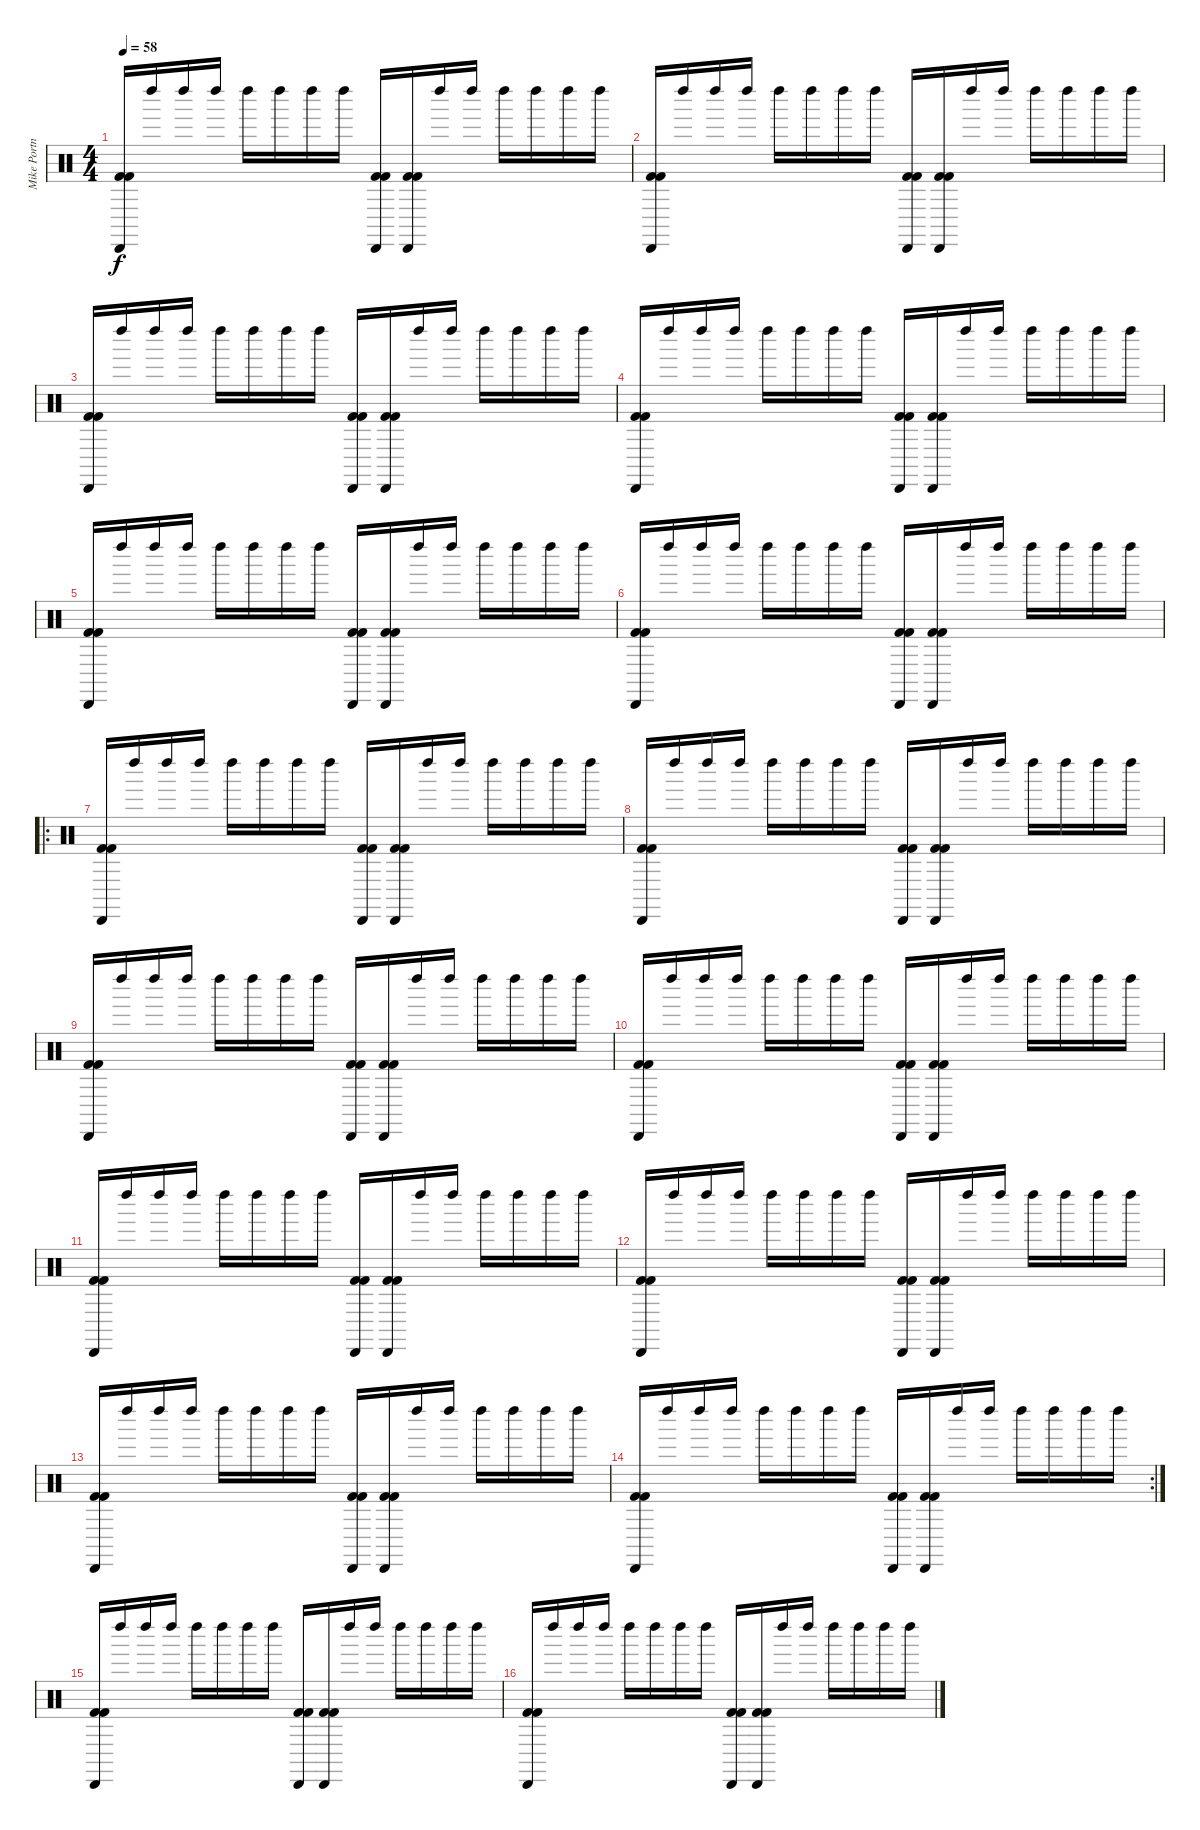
\track ("Mike Portnoy - Drum" "Mike Portn") {instrument percussion}
\staff {score}
\articulation defaults
\ts (4 4)
\tempo 58
\clef neutral
\ks c
("Cabasa (hit)" "Kick (hit) 2" "Kick (hit) 2").16{dy f} "Left Maraca (hit)".16 "Left Maraca (hit)".16 "Left Maraca (hit)".16 "Left Maraca (hit)".16 "Left Maraca (hit)".16 "Left Maraca (hit)".16 "Left Maraca (hit)".16 ("Cabasa (hit)" "Kick (hit) 2" "Kick (hit) 2").16 ("Cabasa (hit)" "Kick (hit) 2" "Kick (hit) 2").16 "Left Maraca (hit)".16 "Left Maraca (hit)".16 "Left Maraca (hit)".16 "Left Maraca (hit)".16 "Left Maraca (hit)".16 "Left Maraca (hit)".16 |
("Cabasa (hit)" "Kick (hit) 2" "Kick (hit) 2").16 "Left Maraca (hit)".16 "Left Maraca (hit)".16 "Left Maraca (hit)".16 "Left Maraca (hit)".16 "Left Maraca (hit)".16 "Left Maraca (hit)".16 "Left Maraca (hit)".16 ("Cabasa (hit)" "Kick (hit) 2" "Kick (hit) 2").16 ("Cabasa (hit)" "Kick (hit) 2" "Kick (hit) 2").16 "Left Maraca (hit)".16 "Left Maraca (hit)".16 "Left Maraca (hit)".16 "Left Maraca (hit)".16 "Left Maraca (hit)".16 "Left Maraca (hit)".16 |
("Cabasa (hit)" "Kick (hit) 2" "Kick (hit) 2").16 "Left Maraca (hit)".16 "Left Maraca (hit)".16 "Left Maraca (hit)".16 "Left Maraca (hit)".16 "Left Maraca (hit)".16 "Left Maraca (hit)".16 "Left Maraca (hit)".16 ("Cabasa (hit)" "Kick (hit) 2" "Kick (hit) 2").16 ("Cabasa (hit)" "Kick (hit) 2" "Kick (hit) 2").16 "Left Maraca (hit)".16 "Left Maraca (hit)".16 "Left Maraca (hit)".16 "Left Maraca (hit)".16 "Left Maraca (hit)".16 "Left Maraca (hit)".16 |
("Cabasa (hit)" "Kick (hit) 2" "Kick (hit) 2").16 "Left Maraca (hit)".16 "Left Maraca (hit)".16 "Left Maraca (hit)".16 "Left Maraca (hit)".16 "Left Maraca (hit)".16 "Left Maraca (hit)".16 "Left Maraca (hit)".16 ("Cabasa (hit)" "Kick (hit) 2" "Kick (hit) 2").16 ("Cabasa (hit)" "Kick (hit) 2" "Kick (hit) 2").16 "Left Maraca (hit)".16 "Left Maraca (hit)".16 "Left Maraca (hit)".16 "Left Maraca (hit)".16 "Left Maraca (hit)".16 "Left Maraca (hit)".16 |
("Cabasa (hit)" "Kick (hit) 2" "Kick (hit) 2").16 "Left Maraca (hit)".16 "Left Maraca (hit)".16 "Left Maraca (hit)".16 "Left Maraca (hit)".16 "Left Maraca (hit)".16 "Left Maraca (hit)".16 "Left Maraca (hit)".16 ("Cabasa (hit)" "Kick (hit) 2" "Kick (hit) 2").16 ("Cabasa (hit)" "Kick (hit) 2" "Kick (hit) 2").16 "Left Maraca (hit)".16 "Left Maraca (hit)".16 "Left Maraca (hit)".16 "Left Maraca (hit)".16 "Left Maraca (hit)".16 "Left Maraca (hit)".16 |
("Cabasa (hit)" "Kick (hit) 2" "Kick (hit) 2").16 "Left Maraca (hit)".16 "Left Maraca (hit)".16 "Left Maraca (hit)".16 "Left Maraca (hit)".16 "Left Maraca (hit)".16 "Left Maraca (hit)".16 "Left Maraca (hit)".16 ("Cabasa (hit)" "Kick (hit) 2" "Kick (hit) 2").16 ("Cabasa (hit)" "Kick (hit) 2" "Kick (hit) 2").16 "Left Maraca (hit)".16 "Left Maraca (hit)".16 "Left Maraca (hit)".16 "Left Maraca (hit)".16 "Left Maraca (hit)".16 "Left Maraca (hit)".16 |
\ro
("Cabasa (hit)" "Kick (hit) 2" "Kick (hit) 2").16 "Left Maraca (hit)".16 "Left Maraca (hit)".16 "Left Maraca (hit)".16 "Left Maraca (hit)".16 "Left Maraca (hit)".16 "Left Maraca (hit)".16 "Left Maraca (hit)".16 ("Cabasa (hit)" "Kick (hit) 2" "Kick (hit) 2").16 ("Cabasa (hit)" "Kick (hit) 2" "Kick (hit) 2").16 "Left Maraca (hit)".16 "Left Maraca (hit)".16 "Left Maraca (hit)".16 "Left Maraca (hit)".16 "Left Maraca (hit)".16 "Left Maraca (hit)".16 |
("Cabasa (hit)" "Kick (hit) 2" "Kick (hit) 2").16 "Left Maraca (hit)".16 "Left Maraca (hit)".16 "Left Maraca (hit)".16 "Left Maraca (hit)".16 "Left Maraca (hit)".16 "Left Maraca (hit)".16 "Left Maraca (hit)".16 ("Cabasa (hit)" "Kick (hit) 2" "Kick (hit) 2").16 ("Cabasa (hit)" "Kick (hit) 2" "Kick (hit) 2").16 "Left Maraca (hit)".16 "Left Maraca (hit)".16 "Left Maraca (hit)".16 "Left Maraca (hit)".16 "Left Maraca (hit)".16 "Left Maraca (hit)".16 |
("Cabasa (hit)" "Kick (hit) 2" "Kick (hit) 2").16 "Left Maraca (hit)".16 "Left Maraca (hit)".16 "Left Maraca (hit)".16 "Left Maraca (hit)".16 "Left Maraca (hit)".16 "Left Maraca (hit)".16 "Left Maraca (hit)".16 ("Cabasa (hit)" "Kick (hit) 2" "Kick (hit) 2").16 ("Cabasa (hit)" "Kick (hit) 2" "Kick (hit) 2").16 "Left Maraca (hit)".16 "Left Maraca (hit)".16 "Left Maraca (hit)".16 "Left Maraca (hit)".16 "Left Maraca (hit)".16 "Left Maraca (hit)".16 |
("Cabasa (hit)" "Kick (hit) 2" "Kick (hit) 2").16 "Left Maraca (hit)".16 "Left Maraca (hit)".16 "Left Maraca (hit)".16 "Left Maraca (hit)".16 "Left Maraca (hit)".16 "Left Maraca (hit)".16 "Left Maraca (hit)".16 ("Cabasa (hit)" "Kick (hit) 2" "Kick (hit) 2").16 ("Cabasa (hit)" "Kick (hit) 2" "Kick (hit) 2").16 "Left Maraca (hit)".16 "Left Maraca (hit)".16 "Left Maraca (hit)".16 "Left Maraca (hit)".16 "Left Maraca (hit)".16 "Left Maraca (hit)".16 |
("Cabasa (hit)" "Kick (hit) 2" "Kick (hit) 2").16 "Left Maraca (hit)".16 "Left Maraca (hit)".16 "Left Maraca (hit)".16 "Left Maraca (hit)".16 "Left Maraca (hit)".16 "Left Maraca (hit)".16 "Left Maraca (hit)".16 ("Cabasa (hit)" "Kick (hit) 2" "Kick (hit) 2").16 ("Cabasa (hit)" "Kick (hit) 2" "Kick (hit) 2").16 "Left Maraca (hit)".16 "Left Maraca (hit)".16 "Left Maraca (hit)".16 "Left Maraca (hit)".16 "Left Maraca (hit)".16 "Left Maraca (hit)".16 |
("Cabasa (hit)" "Kick (hit) 2" "Kick (hit) 2").16 "Left Maraca (hit)".16 "Left Maraca (hit)".16 "Left Maraca (hit)".16 "Left Maraca (hit)".16 "Left Maraca (hit)".16 "Left Maraca (hit)".16 "Left Maraca (hit)".16 ("Cabasa (hit)" "Kick (hit) 2" "Kick (hit) 2").16 ("Cabasa (hit)" "Kick (hit) 2" "Kick (hit) 2").16 "Left Maraca (hit)".16 "Left Maraca (hit)".16 "Left Maraca (hit)".16 "Left Maraca (hit)".16 "Left Maraca (hit)".16 "Left Maraca (hit)".16 |
("Cabasa (hit)" "Kick (hit) 2" "Kick (hit) 2").16 "Left Maraca (hit)".16 "Left Maraca (hit)".16 "Left Maraca (hit)".16 "Left Maraca (hit)".16 "Left Maraca (hit)".16 "Left Maraca (hit)".16 "Left Maraca (hit)".16 ("Cabasa (hit)" "Kick (hit) 2" "Kick (hit) 2").16 ("Cabasa (hit)" "Kick (hit) 2" "Kick (hit) 2").16 "Left Maraca (hit)".16 "Left Maraca (hit)".16 "Left Maraca (hit)".16 "Left Maraca (hit)".16 "Left Maraca (hit)".16 "Left Maraca (hit)".16 |
\rc 2
("Cabasa (hit)" "Kick (hit) 2" "Kick (hit) 2").16 "Left Maraca (hit)".16 "Left Maraca (hit)".16 "Left Maraca (hit)".16 "Left Maraca (hit)".16 "Left Maraca (hit)".16 "Left Maraca (hit)".16 "Left Maraca (hit)".16 ("Cabasa (hit)" "Kick (hit) 2" "Kick (hit) 2").16 ("Cabasa (hit)" "Kick (hit) 2" "Kick (hit) 2").16 "Left Maraca (hit)".16 "Left Maraca (hit)".16 "Left Maraca (hit)".16 "Left Maraca (hit)".16 "Left Maraca (hit)".16 "Left Maraca (hit)".16 |
("Cabasa (hit)" "Kick (hit) 2" "Kick (hit) 2").16 "Left Maraca (hit)".16 "Left Maraca (hit)".16 "Left Maraca (hit)".16 "Left Maraca (hit)".16 "Left Maraca (hit)".16 "Left Maraca (hit)".16 "Left Maraca (hit)".16 ("Cabasa (hit)" "Kick (hit) 2" "Kick (hit) 2").16 ("Cabasa (hit)" "Kick (hit) 2" "Kick (hit) 2").16 "Left Maraca (hit)".16 "Left Maraca (hit)".16 "Left Maraca (hit)".16 "Left Maraca (hit)".16 "Left Maraca (hit)".16 "Left Maraca (hit)".16 |
("Cabasa (hit)" "Kick (hit) 2" "Kick (hit) 2").16 "Left Maraca (hit)".16 "Left Maraca (hit)".16 "Left Maraca (hit)".16 "Left Maraca (hit)".16 "Left Maraca (hit)".16 "Left Maraca (hit)".16 "Left Maraca (hit)".16 ("Cabasa (hit)" "Kick (hit) 2" "Kick (hit) 2").16 ("Cabasa (hit)" "Kick (hit) 2" "Kick (hit) 2").16 "Left Maraca (hit)".16 "Left Maraca (hit)".16 "Left Maraca (hit)".16 "Left Maraca (hit)".16 "Left Maraca (hit)".16 "Left Maraca (hit)".16
